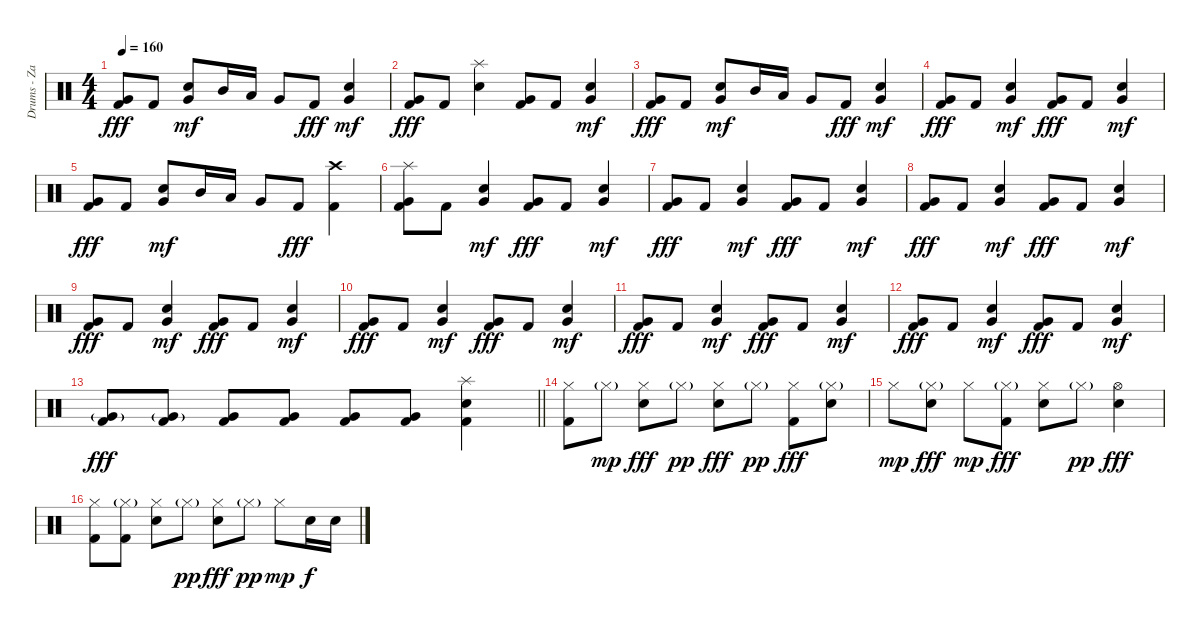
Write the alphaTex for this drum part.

\track ("Drums - Zac Farro" "Drums - Za") {instrument percussion}
\staff {score}
\articulation defaults
\ts (4 4)
\tempo 160
\clef neutral
\ks c
("Very Low Tom (hit)" "Kick (hit) 2").8{dy fff} "Kick (hit) 2".8 ("Electric Snare (hit)" "Very Low Tom (hit)").8{dy mf} "Mid Tom (hit)".16 "Low Tom (hit)".16 "Very Low Tom (hit)".8 "Kick (hit) 2".8{dy fff} ("Electric Snare (hit)" "Very Low Tom (hit)").4{dy mf} |
("Very Low Tom (hit)" "Kick (hit) 2").8{dy fff} "Kick (hit) 2".8 ("Splash (hit)" "Electric Snare (hit)").4 ("Very Low Tom (hit)" "Kick (hit) 2").8 "Kick (hit) 2".8 ("Electric Snare (hit)" "Very Low Tom (hit)").4{dy mf} |
("Very Low Tom (hit)" "Kick (hit) 2").8{dy fff} "Kick (hit) 2".8 ("Electric Snare (hit)" "Very Low Tom (hit)").8{dy mf} "Mid Tom (hit)".16 "Low Tom (hit)".16 "Very Low Tom (hit)".8 "Kick (hit) 2".8{dy fff} ("Electric Snare (hit)" "Very Low Tom (hit)").4{dy mf} |
("Very Low Tom (hit)" "Kick (hit) 2").8{dy fff} "Kick (hit) 2".8 ("Electric Snare (hit)" "Very Low Tom (hit)").4{dy mf} ("Very Low Tom (hit)" "Kick (hit) 2").8{dy fff} "Kick (hit) 2".8 ("Electric Snare (hit)" "Very Low Tom (hit)").4{dy mf} |
("Very Low Tom (hit)" "Kick (hit) 2").8{dy fff} "Kick (hit) 2".8 ("Electric Snare (hit)" "Very Low Tom (hit)").8{dy mf} "Mid Tom (hit)".16 "Low Tom (hit)".16 "Very Low Tom (hit)".8 "Kick (hit) 2".8{dy fff} ("Crash high (hit)" "Kick (hit) 2").4 |
("Splash (hit)" "Very Low Tom (hit)" "Kick (hit) 2").8 "Kick (hit) 2".8 ("Electric Snare (hit)" "Very Low Tom (hit)").4{dy mf} ("Very Low Tom (hit)" "Kick (hit) 2").8{dy fff} "Kick (hit) 2".8 ("Electric Snare (hit)" "Very Low Tom (hit)").4{dy mf} |
("Very Low Tom (hit)" "Kick (hit) 2").8{dy fff} "Kick (hit) 2".8 ("Electric Snare (hit)" "Very Low Tom (hit)").4{dy mf} ("Very Low Tom (hit)" "Kick (hit) 2").8{dy fff} "Kick (hit) 2".8 ("Electric Snare (hit)" "Very Low Tom (hit)").4{dy mf} |
("Very Low Tom (hit)" "Kick (hit) 2").8{dy fff} "Kick (hit) 2".8 ("Electric Snare (hit)" "Very Low Tom (hit)").4{dy mf} ("Very Low Tom (hit)" "Kick (hit) 2").8{dy fff} "Kick (hit) 2".8 ("Electric Snare (hit)" "Very Low Tom (hit)").4{dy mf} |
("Very Low Tom (hit)" "Kick (hit) 2").8{dy fff} "Kick (hit) 2".8 ("Electric Snare (hit)" "Very Low Tom (hit)").4{dy mf} ("Very Low Tom (hit)" "Kick (hit) 2").8{dy fff} "Kick (hit) 2".8 ("Electric Snare (hit)" "Very Low Tom (hit)").4{dy mf} |
("Very Low Tom (hit)" "Kick (hit) 2").8{dy fff} "Kick (hit) 2".8 ("Electric Snare (hit)" "Very Low Tom (hit)").4{dy mf} ("Very Low Tom (hit)" "Kick (hit) 2").8{dy fff} "Kick (hit) 2".8 ("Electric Snare (hit)" "Very Low Tom (hit)").4{dy mf} |
("Very Low Tom (hit)" "Kick (hit) 2").8{dy fff} "Kick (hit) 2".8 ("Electric Snare (hit)" "Very Low Tom (hit)").4{dy mf} ("Very Low Tom (hit)" "Kick (hit) 2").8{dy fff} "Kick (hit) 2".8 ("Electric Snare (hit)" "Very Low Tom (hit)").4{dy mf} |
("Very Low Tom (hit)" "Kick (hit) 2").8{dy fff} "Kick (hit) 2".8 ("Electric Snare (hit)" "Very Low Tom (hit)").4{dy mf} ("Very Low Tom (hit)" "Kick (hit) 2").8{dy fff} "Kick (hit) 2".8 ("Electric Snare (hit)" "Very Low Tom (hit)").4{dy mf} |
\barLineRight lightlight
("Very Low Tom (hit)"{g} "Kick (hit) 2").8{dy fff} ("Very Low Tom (hit)"{g} "Kick (hit) 2").8 ("Very Low Tom (hit)" "Kick (hit) 2").8 ("Very Low Tom (hit)" "Kick (hit) 2").8 ("Very Low Tom (hit)" "Kick (hit) 2").8 ("Very Low Tom (hit)" "Kick (hit) 2").8 ("Splash (hit)" "Electric Snare (hit)" "Kick (hit) 2").4 |
("Hi-Hat (closed)" "Kick (hit) 2").8 "Hi-Hat (closed)"{g}.8{dy mp} ("Hi-Hat (closed)" "Electric Snare (hit)").8{dy fff} "Hi-Hat (closed)"{g}.8{dy pp} ("Hi-Hat (closed)" "Electric Snare (hit)").8{dy fff} "Hi-Hat (closed)"{g}.8{dy pp} ("Hi-Hat (closed)" "Kick (hit) 2").8{dy fff} ("Hi-Hat (closed)"{g} "Electric Snare (hit)").8 |
"Hi-Hat (closed)".8{dy mp} ("Hi-Hat (closed)"{g} "Electric Snare (hit)").8{dy fff} "Hi-Hat (closed)".8{dy mp} ("Hi-Hat (closed)"{g} "Kick (hit) 2").8{dy fff} ("Hi-Hat (closed)" "Electric Snare (hit)").8 "Hi-Hat (closed)"{g}.8{dy pp} ("Hi-Hat (open)" "Electric Snare (hit)").4{dy fff} |
("Hi-Hat (closed)" "Kick (hit) 2").8 ("Hi-Hat (closed)"{g} "Kick (hit) 2").8 ("Hi-Hat (closed)" "Electric Snare (hit)").8 "Hi-Hat (closed)"{g}.8{dy pp} ("Hi-Hat (closed)" "Electric Snare (hit)").8{dy fff} "Hi-Hat (closed)"{g}.8{dy pp} "Hi-Hat (closed)".8{dy mp} "Electric Snare (hit)".16{dy f} "Electric Snare (hit)".16
